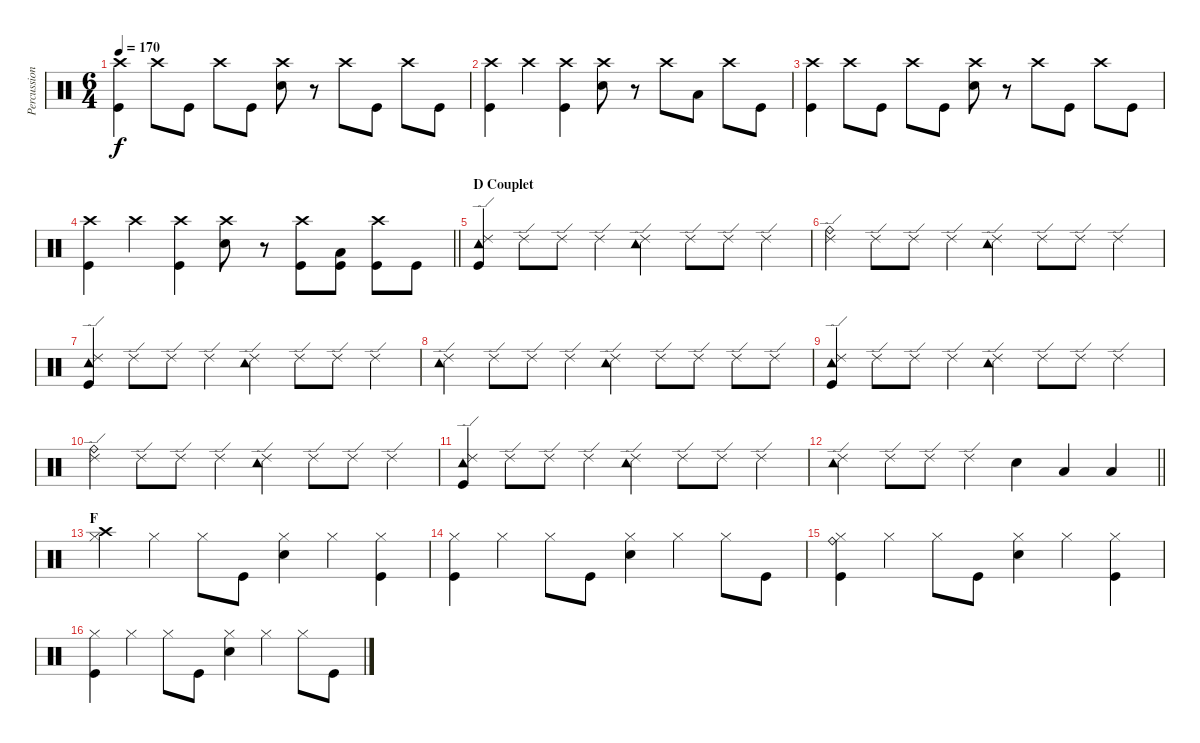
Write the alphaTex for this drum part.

\track ("Percussions" "Percussion") {instrument percussion}
\staff {score}
\articulation defaults
\ts (6 4)
\tempo 170
\clef neutral
\ks c
("Crash high (hit)" "Kick (hit)").4{dy f} "Crash high (hit)".8 "Kick (hit)".8 "Crash high (hit)".8 "Kick (hit)".8 ("Crash high (hit)" "Snare (hit) 2").8 r.8 "Crash high (hit)".8 "Kick (hit)".8 "Crash high (hit)".8 "Kick (hit)".8 |
("Crash high (hit)" "Kick (hit)").4 "Crash high (hit)".4 ("Crash high (hit)" "Kick (hit)").4 ("Crash high (hit)" "Snare (hit) 2").8 r.8 "Crash high (hit)".8 "Low Tom (hit)".8 "Crash high (hit)".8 "Kick (hit)".8 |
("Crash high (hit)" "Kick (hit)").4 "Crash high (hit)".8 "Kick (hit)".8 "Crash high (hit)".8 "Kick (hit)".8 ("Crash high (hit)" "Snare (hit) 2").8 r.8 "Crash high (hit)".8 "Kick (hit)".8 "Crash high (hit)".8 "Kick (hit)".8 |
\barLineRight lightlight
("Crash high (hit)" "Kick (hit)").4 "Crash high (hit)".4 ("Crash high (hit)" "Kick (hit)").4 ("Crash high (hit)" "Snare (hit) 2").8 r.8 ("Crash high (hit)" "Kick (hit)").8 ("Low Tom (hit)" "Kick (hit)").8 ("Crash high (hit)" "Kick (hit)").8 "Kick (hit)".8 |
\section ("" "D Couplet")
("Tambourine (hit)" "Ride (edge) 2" "Kick (hit)").4 "Ride (edge) 2".8 "Ride (edge) 2".8 "Ride (edge) 2".4 ("Tambourine (hit)" "Ride (edge) 2").4 "Ride (edge) 2".8 "Ride (edge) 2".8 "Ride (edge) 2".4 |
("Ride (bell)" "Ride (edge) 2").4 "Ride (edge) 2".8 "Ride (edge) 2".8 "Ride (edge) 2".4 ("Ride (edge) 2" "Tambourine (hit)").4 "Ride (edge) 2".8 "Ride (edge) 2".8 "Ride (edge) 2".4 |
("Tambourine (hit)" "Ride (edge) 2" "Kick (hit)").4 "Ride (edge) 2".8 "Ride (edge) 2".8 "Ride (edge) 2".4 ("Tambourine (hit)" "Ride (edge) 2").4 "Ride (edge) 2".8 "Ride (edge) 2".8 "Ride (edge) 2".4 |
("Tambourine (hit)" "Ride (edge) 2").4 "Ride (edge) 2".8 "Ride (edge) 2".8 "Ride (edge) 2".4 ("Ride (edge) 2" "Tambourine (hit)").4 "Ride (edge) 2".8 "Ride (edge) 2".8 "Ride (edge) 2".8 "Ride (edge) 2".8 |
("Tambourine (hit)" "Ride (edge) 2" "Kick (hit)").4 "Ride (edge) 2".8 "Ride (edge) 2".8 "Ride (edge) 2".4 ("Tambourine (hit)" "Ride (edge) 2").4 "Ride (edge) 2".8 "Ride (edge) 2".8 "Ride (edge) 2".4 |
("Ride (bell)" "Ride (edge) 2").4 "Ride (edge) 2".8 "Ride (edge) 2".8 "Ride (edge) 2".4 ("Ride (edge) 2" "Tambourine (hit)").4 "Ride (edge) 2".8 "Ride (edge) 2".8 "Ride (edge) 2".4 |
("Tambourine (hit)" "Ride (edge) 2" "Kick (hit)").4 "Ride (edge) 2".8 "Ride (edge) 2".8 "Ride (edge) 2".4 ("Tambourine (hit)" "Ride (edge) 2").4 "Ride (edge) 2".8 "Ride (edge) 2".8 "Ride (edge) 2".4 |
\barLineRight lightlight
("Tambourine (hit)" "Ride (edge) 2").4 "Ride (edge) 2".8 "Ride (edge) 2".8 "Ride (edge) 2".4 "Snare (hit) 2".4 "Low Tom (hit)".4 "Low Floor Tom (hit)".4 |
\section ("" "F")
("Crash high (hit)" "Hi-Hat (closed)").4 "Hi-Hat (closed)".4 "Hi-Hat (closed)".8 "Kick (hit)".8 ("Hi-Hat (closed)" "Snare (hit) 2").4 "Hi-Hat (closed)".4 ("Hi-Hat (closed)" "Kick (hit)").4 |
("Hi-Hat (closed)" "Kick (hit)").4 "Hi-Hat (closed)".4 "Hi-Hat (closed)".8 "Kick (hit)".8 ("Hi-Hat (closed)" "Snare (hit) 2").4 "Hi-Hat (closed)".4 "Hi-Hat (closed)".8 "Kick (hit)".8 |
("Ride (bell)" "Hi-Hat (closed)" "Kick (hit)").4 "Hi-Hat (closed)".4 "Hi-Hat (closed)".8 "Kick (hit)".8 ("Hi-Hat (closed)" "Snare (hit) 2").4 "Hi-Hat (closed)".4 ("Hi-Hat (closed)" "Kick (hit)").4 |
("Hi-Hat (closed)" "Kick (hit)").4 "Hi-Hat (closed)".4 "Hi-Hat (closed)".8 "Kick (hit)".8 ("Hi-Hat (closed)" "Snare (hit) 2").4 "Hi-Hat (closed)".4 "Hi-Hat (closed)".8 "Kick (hit)".8
